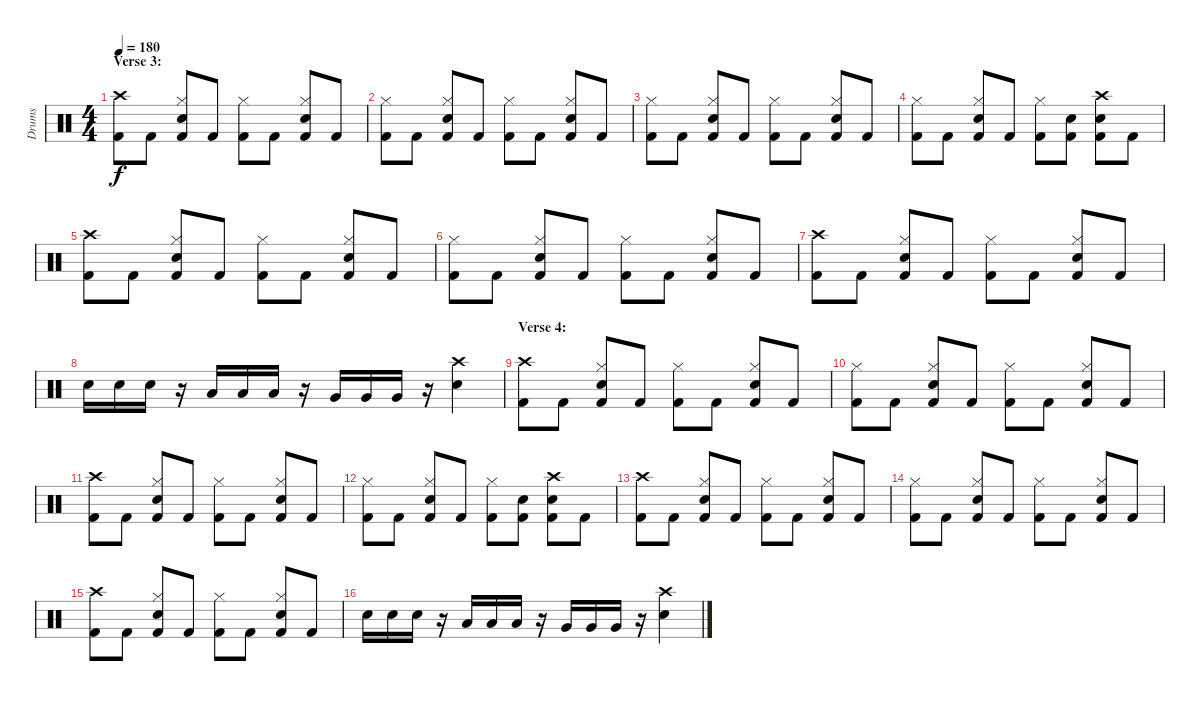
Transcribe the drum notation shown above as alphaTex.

\track ("Drums" "Drums") {instrument percussion}
\staff {score}
\articulation defaults
\ts (4 4)
\section ("" "Verse 3:")
\tempo 180
\clef neutral
\ks c
("Crash high (hit)" "Kick (hit) 2").8{dy f} "Kick (hit) 2".8 ("Hi-Hat (closed)" "Electric Snare (hit)" "Kick (hit) 2").8 "Kick (hit) 2".8 ("Hi-Hat (closed)" "Kick (hit) 2").8 "Kick (hit) 2".8 ("Hi-Hat (closed)" "Electric Snare (hit)" "Kick (hit) 2").8 "Kick (hit) 2".8 |
("Hi-Hat (closed)" "Kick (hit) 2").8 "Kick (hit) 2".8 ("Hi-Hat (closed)" "Electric Snare (hit)" "Kick (hit) 2").8 "Kick (hit) 2".8 ("Hi-Hat (closed)" "Kick (hit) 2").8 "Kick (hit) 2".8 ("Hi-Hat (closed)" "Electric Snare (hit)" "Kick (hit) 2").8 "Kick (hit) 2".8 |
("Hi-Hat (closed)" "Kick (hit) 2").8 "Kick (hit) 2".8 ("Hi-Hat (closed)" "Electric Snare (hit)" "Kick (hit) 2").8 "Kick (hit) 2".8 ("Hi-Hat (closed)" "Kick (hit) 2").8 "Kick (hit) 2".8 ("Hi-Hat (closed)" "Electric Snare (hit)" "Kick (hit) 2").8 "Kick (hit) 2".8 |
("Hi-Hat (closed)" "Kick (hit) 2").8 "Kick (hit) 2".8 ("Hi-Hat (closed)" "Electric Snare (hit)" "Kick (hit) 2").8 "Kick (hit) 2".8 ("Hi-Hat (closed)" "Kick (hit) 2").8 ("Electric Snare (hit)" "Kick (hit) 2").8 ("Crash high (hit)" "Electric Snare (hit)" "Kick (hit) 2").8 "Kick (hit) 2".8 |
("Crash high (hit)" "Kick (hit) 2").8 "Kick (hit) 2".8 ("Hi-Hat (closed)" "Electric Snare (hit)" "Kick (hit) 2").8 "Kick (hit) 2".8 ("Hi-Hat (closed)" "Kick (hit) 2").8 "Kick (hit) 2".8 ("Hi-Hat (closed)" "Electric Snare (hit)" "Kick (hit) 2").8 "Kick (hit) 2".8 |
("Hi-Hat (closed)" "Kick (hit) 2").8 "Kick (hit) 2".8 ("Hi-Hat (closed)" "Electric Snare (hit)" "Kick (hit) 2").8 "Kick (hit) 2".8 ("Hi-Hat (closed)" "Kick (hit) 2").8 "Kick (hit) 2".8 ("Hi-Hat (closed)" "Electric Snare (hit)" "Kick (hit) 2").8 "Kick (hit) 2".8 |
("Crash high (hit)" "Kick (hit) 2").8 "Kick (hit) 2".8 ("Hi-Hat (closed)" "Electric Snare (hit)" "Kick (hit) 2").8 "Kick (hit) 2".8 ("Hi-Hat (closed)" "Kick (hit) 2").8 "Kick (hit) 2".8 ("Hi-Hat (closed)" "Electric Snare (hit)" "Kick (hit) 2").8 "Kick (hit) 2".8 |
"Electric Snare (hit)".16 "Electric Snare (hit)".16 "Electric Snare (hit)".16 r.16 "Low Tom (hit)".16 "Low Tom (hit)".16 "Low Tom (hit)".16 r.16 "Very Low Tom (hit)".16 "Very Low Tom (hit)".16 "Very Low Tom (hit)".16 r.16 ("Crash high (hit)" "Electric Snare (hit)").4 |
\section ("" "Verse 4:")
("Crash high (hit)" "Kick (hit) 2").8 "Kick (hit) 2".8 ("Hi-Hat (closed)" "Electric Snare (hit)" "Kick (hit) 2").8 "Kick (hit) 2".8 ("Hi-Hat (closed)" "Kick (hit) 2").8 "Kick (hit) 2".8 ("Hi-Hat (closed)" "Electric Snare (hit)" "Kick (hit) 2").8 "Kick (hit) 2".8 |
("Hi-Hat (closed)" "Kick (hit) 2").8 "Kick (hit) 2".8 ("Hi-Hat (closed)" "Electric Snare (hit)" "Kick (hit) 2").8 "Kick (hit) 2".8 ("Hi-Hat (closed)" "Kick (hit) 2").8 "Kick (hit) 2".8 ("Hi-Hat (closed)" "Electric Snare (hit)" "Kick (hit) 2").8 "Kick (hit) 2".8 |
("Crash high (hit)" "Kick (hit) 2").8 "Kick (hit) 2".8 ("Hi-Hat (closed)" "Electric Snare (hit)" "Kick (hit) 2").8 "Kick (hit) 2".8 ("Hi-Hat (closed)" "Kick (hit) 2").8 "Kick (hit) 2".8 ("Hi-Hat (closed)" "Electric Snare (hit)" "Kick (hit) 2").8 "Kick (hit) 2".8 |
("Hi-Hat (closed)" "Kick (hit) 2").8 "Kick (hit) 2".8 ("Hi-Hat (closed)" "Electric Snare (hit)" "Kick (hit) 2").8 "Kick (hit) 2".8 ("Hi-Hat (closed)" "Kick (hit) 2").8 ("Electric Snare (hit)" "Kick (hit) 2").8 ("Crash high (hit)" "Electric Snare (hit)" "Kick (hit) 2").8 "Kick (hit) 2".8 |
("Crash high (hit)" "Kick (hit) 2").8 "Kick (hit) 2".8 ("Hi-Hat (closed)" "Electric Snare (hit)" "Kick (hit) 2").8 "Kick (hit) 2".8 ("Hi-Hat (closed)" "Kick (hit) 2").8 "Kick (hit) 2".8 ("Hi-Hat (closed)" "Electric Snare (hit)" "Kick (hit) 2").8 "Kick (hit) 2".8 |
("Hi-Hat (closed)" "Kick (hit) 2").8 "Kick (hit) 2".8 ("Hi-Hat (closed)" "Electric Snare (hit)" "Kick (hit) 2").8 "Kick (hit) 2".8 ("Hi-Hat (closed)" "Kick (hit) 2").8 "Kick (hit) 2".8 ("Hi-Hat (closed)" "Electric Snare (hit)" "Kick (hit) 2").8 "Kick (hit) 2".8 |
("Crash high (hit)" "Kick (hit) 2").8 "Kick (hit) 2".8 ("Hi-Hat (closed)" "Electric Snare (hit)" "Kick (hit) 2").8 "Kick (hit) 2".8 ("Hi-Hat (closed)" "Kick (hit) 2").8 "Kick (hit) 2".8 ("Hi-Hat (closed)" "Electric Snare (hit)" "Kick (hit) 2").8 "Kick (hit) 2".8 |
"Electric Snare (hit)".16 "Electric Snare (hit)".16 "Electric Snare (hit)".16 r.16 "Low Tom (hit)".16 "Low Tom (hit)".16 "Low Tom (hit)".16 r.16 "Very Low Tom (hit)".16 "Very Low Tom (hit)".16 "Very Low Tom (hit)".16 r.16 ("Crash high (hit)" "Electric Snare (hit)").4
